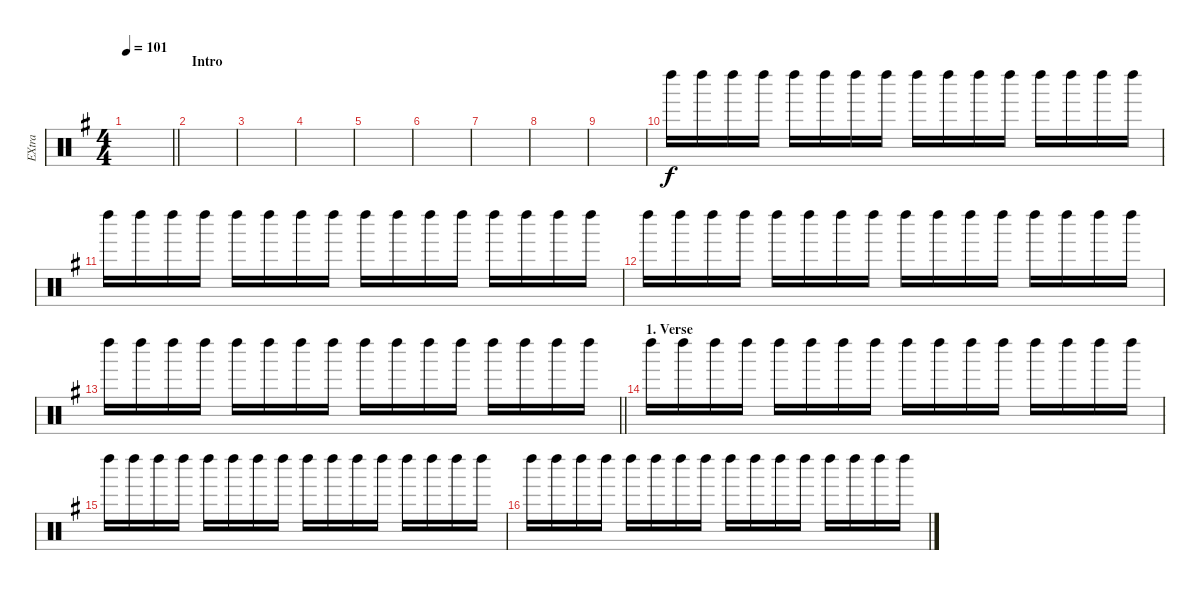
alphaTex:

\track ("EXtra" "EXtra") {instrument percussion}
\staff {score}
\articulation defaults
\ts (4 4)
\tempo 101
\clef neutral
\barLineRight lightlight
\ks g
|
\section ("" "Intro")
|
|
|
|
|
|
|
|
"Left Maraca (hit)".16 "Left Maraca (hit)".16 "Left Maraca (hit)".16 "Left Maraca (hit)".16 "Left Maraca (hit)".16 "Left Maraca (hit)".16 "Left Maraca (hit)".16 "Left Maraca (hit)".16 "Left Maraca (hit)".16 "Left Maraca (hit)".16 "Left Maraca (hit)".16 "Left Maraca (hit)".16 "Left Maraca (hit)".16 "Left Maraca (hit)".16 "Left Maraca (hit)".16 "Left Maraca (hit)".16 |
"Left Maraca (hit)".16 "Left Maraca (hit)".16 "Left Maraca (hit)".16 "Left Maraca (hit)".16 "Left Maraca (hit)".16 "Left Maraca (hit)".16 "Left Maraca (hit)".16 "Left Maraca (hit)".16 "Left Maraca (hit)".16 "Left Maraca (hit)".16 "Left Maraca (hit)".16 "Left Maraca (hit)".16 "Left Maraca (hit)".16 "Left Maraca (hit)".16 "Left Maraca (hit)".16 "Left Maraca (hit)".16 |
"Left Maraca (hit)".16 "Left Maraca (hit)".16 "Left Maraca (hit)".16 "Left Maraca (hit)".16 "Left Maraca (hit)".16 "Left Maraca (hit)".16 "Left Maraca (hit)".16 "Left Maraca (hit)".16 "Left Maraca (hit)".16 "Left Maraca (hit)".16 "Left Maraca (hit)".16 "Left Maraca (hit)".16 "Left Maraca (hit)".16 "Left Maraca (hit)".16 "Left Maraca (hit)".16 "Left Maraca (hit)".16 |
\barLineRight lightlight "Left Maraca (hit)".16 "Left Maraca (hit)".16 "Left Maraca (hit)".16 "Left Maraca (hit)".16 "Left Maraca (hit)".16 "Left Maraca (hit)".16 "Left Maraca (hit)".16 "Left Maraca (hit)".16 "Left Maraca (hit)".16 "Left Maraca (hit)".16 "Left Maraca (hit)".16 "Left Maraca (hit)".16 "Left Maraca (hit)".16 "Left Maraca (hit)".16 "Left Maraca (hit)".16 "Left Maraca (hit)".16
|
\section ("" "1. Verse")
"Left Maraca (hit)".16 "Left Maraca (hit)".16 "Left Maraca (hit)".16 "Left Maraca (hit)".16 "Left Maraca (hit)".16 "Left Maraca (hit)".16 "Left Maraca (hit)".16 "Left Maraca (hit)".16 "Left Maraca (hit)".16 "Left Maraca (hit)".16 "Left Maraca (hit)".16 "Left Maraca (hit)".16 "Left Maraca (hit)".16 "Left Maraca (hit)".16 "Left Maraca (hit)".16 "Left Maraca (hit)".16 |
"Left Maraca (hit)".16 "Left Maraca (hit)".16 "Left Maraca (hit)".16 "Left Maraca (hit)".16 "Left Maraca (hit)".16 "Left Maraca (hit)".16 "Left Maraca (hit)".16 "Left Maraca (hit)".16 "Left Maraca (hit)".16 "Left Maraca (hit)".16 "Left Maraca (hit)".16 "Left Maraca (hit)".16 "Left Maraca (hit)".16 "Left Maraca (hit)".16 "Left Maraca (hit)".16 "Left Maraca (hit)".16 |
"Left Maraca (hit)".16 "Left Maraca (hit)".16 "Left Maraca (hit)".16 "Left Maraca (hit)".16 "Left Maraca (hit)".16 "Left Maraca (hit)".16 "Left Maraca (hit)".16 "Left Maraca (hit)".16 "Left Maraca (hit)".16 "Left Maraca (hit)".16 "Left Maraca (hit)".16 "Left Maraca (hit)".16 "Left Maraca (hit)".16 "Left Maraca (hit)".16 "Left Maraca (hit)".16 "Left Maraca (hit)".16
